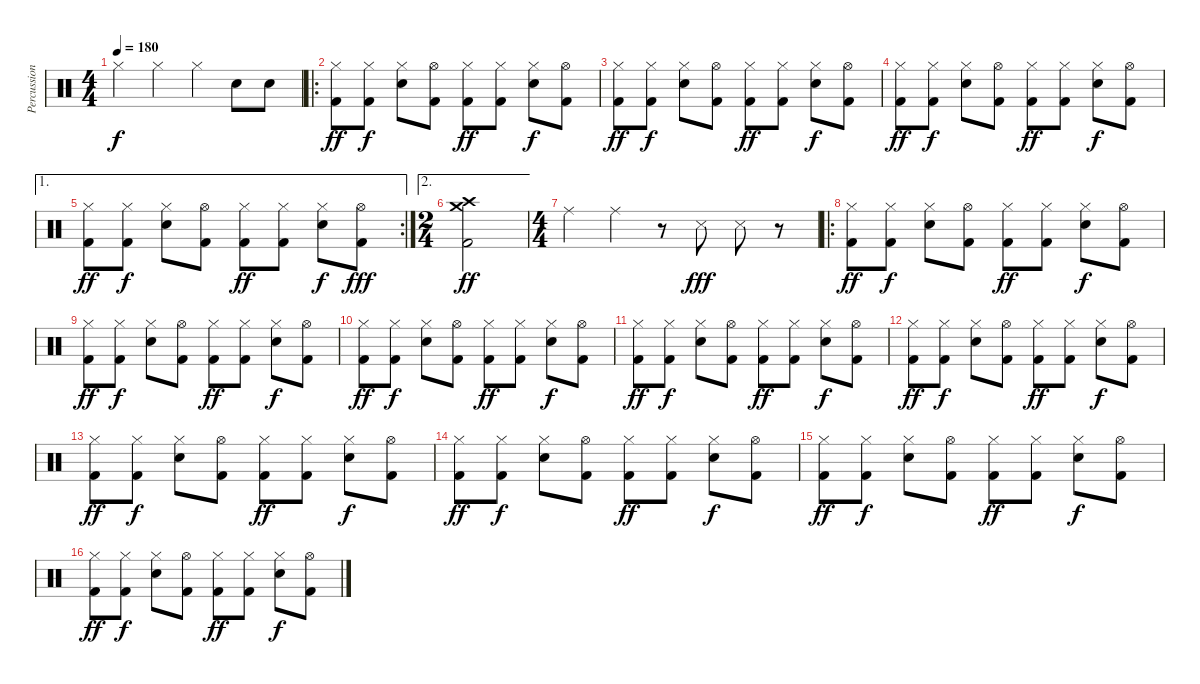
\track ("Percussions" "Percussion") {instrument percussion}
\staff {score}
\articulation defaults
\ts (4 4)
\tempo 180
\clef neutral
\ks c "Hi-Hat (closed)".4{dy f} "Hi-Hat (closed)".4 "Hi-Hat (closed)".4 "Electric Snare (hit)".8 "Electric Snare (hit)".8
|
\ro
("Hi-Hat (closed)" "Kick (hit) 2").8{dy ff} ("Hi-Hat (closed)" "Kick (hit) 2").8{dy f} ("Hi-Hat (closed)" "Snare (hit) 2").8 ("Hi-Hat (open)" "Kick (hit) 2").8 ("Hi-Hat (closed)" "Kick (hit) 2").8{dy ff} ("Hi-Hat (closed)" "Kick (hit) 2").8 ("Hi-Hat (closed)" "Snare (hit) 2").8{dy f} ("Hi-Hat (open)" "Kick (hit) 2").8 |
("Hi-Hat (closed)" "Kick (hit) 2").8{dy ff} ("Hi-Hat (closed)" "Kick (hit) 2").8{dy f} ("Hi-Hat (closed)" "Snare (hit) 2").8 ("Hi-Hat (open)" "Kick (hit) 2").8 ("Hi-Hat (closed)" "Kick (hit) 2").8{dy ff} ("Hi-Hat (closed)" "Kick (hit) 2").8 ("Hi-Hat (closed)" "Snare (hit) 2").8{dy f} ("Hi-Hat (open)" "Kick (hit) 2").8 |
("Hi-Hat (closed)" "Kick (hit) 2").8{dy ff} ("Hi-Hat (closed)" "Kick (hit) 2").8{dy f} ("Hi-Hat (closed)" "Snare (hit) 2").8 ("Hi-Hat (open)" "Kick (hit) 2").8 ("Hi-Hat (closed)" "Kick (hit) 2").8{dy ff} ("Hi-Hat (closed)" "Kick (hit) 2").8 ("Hi-Hat (closed)" "Snare (hit) 2").8{dy f} ("Hi-Hat (open)" "Kick (hit) 2").8 |
\ae 1
\rc 2
("Hi-Hat (closed)" "Kick (hit) 2").8{dy ff} ("Hi-Hat (closed)" "Kick (hit) 2").8{dy f} ("Hi-Hat (closed)" "Snare (hit) 2").8 ("Hi-Hat (open)" "Kick (hit) 2").8 ("Hi-Hat (closed)" "Kick (hit) 2").8{dy ff} ("Hi-Hat (closed)" "Kick (hit) 2").8 ("Hi-Hat (closed)" "Snare (hit) 2").8{dy f} ("Hi-Hat (open)" "Kick (hit) 2").8{dy fff} |
\ae 2
\ts (2 4)
("Crash medium (hit)" "Crash high (hit)" "Kick (hit) 2").2{dy ff} |
\ts (4 4)
"Ride (middle)".4 "Ride (middle)".4 r.8 "Snare (side stick) 3".8{dy fff} "Snare (side stick) 3".8 r.8 |
\ro
("Hi-Hat (closed)" "Kick (hit) 2").8{dy ff} ("Hi-Hat (closed)" "Kick (hit) 2").8{dy f} ("Hi-Hat (closed)" "Snare (hit) 2").8 ("Hi-Hat (open)" "Kick (hit) 2").8 ("Hi-Hat (closed)" "Kick (hit) 2").8{dy ff} ("Hi-Hat (closed)" "Kick (hit) 2").8 ("Hi-Hat (closed)" "Snare (hit) 2").8{dy f} ("Hi-Hat (open)" "Kick (hit) 2").8 |
("Hi-Hat (closed)" "Kick (hit) 2").8{dy ff} ("Hi-Hat (closed)" "Kick (hit) 2").8{dy f} ("Hi-Hat (closed)" "Snare (hit) 2").8 ("Hi-Hat (open)" "Kick (hit) 2").8 ("Hi-Hat (closed)" "Kick (hit) 2").8{dy ff} ("Hi-Hat (closed)" "Kick (hit) 2").8 ("Hi-Hat (closed)" "Snare (hit) 2").8{dy f} ("Hi-Hat (open)" "Kick (hit) 2").8 |
("Hi-Hat (closed)" "Kick (hit) 2").8{dy ff} ("Hi-Hat (closed)" "Kick (hit) 2").8{dy f} ("Hi-Hat (closed)" "Snare (hit) 2").8 ("Hi-Hat (open)" "Kick (hit) 2").8 ("Hi-Hat (closed)" "Kick (hit) 2").8{dy ff} ("Hi-Hat (closed)" "Kick (hit) 2").8 ("Hi-Hat (closed)" "Snare (hit) 2").8{dy f} ("Hi-Hat (open)" "Kick (hit) 2").8 |
("Hi-Hat (closed)" "Kick (hit) 2").8{dy ff} ("Hi-Hat (closed)" "Kick (hit) 2").8{dy f} ("Hi-Hat (closed)" "Snare (hit) 2").8 ("Hi-Hat (open)" "Kick (hit) 2").8 ("Hi-Hat (closed)" "Kick (hit) 2").8{dy ff} ("Hi-Hat (closed)" "Kick (hit) 2").8 ("Hi-Hat (closed)" "Snare (hit) 2").8{dy f} ("Hi-Hat (open)" "Kick (hit) 2").8 |
("Hi-Hat (closed)" "Kick (hit) 2").8{dy ff} ("Hi-Hat (closed)" "Kick (hit) 2").8{dy f} ("Hi-Hat (closed)" "Snare (hit) 2").8 ("Hi-Hat (open)" "Kick (hit) 2").8 ("Hi-Hat (closed)" "Kick (hit) 2").8{dy ff} ("Hi-Hat (closed)" "Kick (hit) 2").8 ("Hi-Hat (closed)" "Snare (hit) 2").8{dy f} ("Hi-Hat (open)" "Kick (hit) 2").8 |
("Hi-Hat (closed)" "Kick (hit) 2").8{dy ff} ("Hi-Hat (closed)" "Kick (hit) 2").8{dy f} ("Hi-Hat (closed)" "Snare (hit) 2").8 ("Hi-Hat (open)" "Kick (hit) 2").8 ("Hi-Hat (closed)" "Kick (hit) 2").8{dy ff} ("Hi-Hat (closed)" "Kick (hit) 2").8 ("Hi-Hat (closed)" "Snare (hit) 2").8{dy f} ("Hi-Hat (open)" "Kick (hit) 2").8 |
("Hi-Hat (closed)" "Kick (hit) 2").8{dy ff} ("Hi-Hat (closed)" "Kick (hit) 2").8{dy f} ("Hi-Hat (closed)" "Snare (hit) 2").8 ("Hi-Hat (open)" "Kick (hit) 2").8 ("Hi-Hat (closed)" "Kick (hit) 2").8{dy ff} ("Hi-Hat (closed)" "Kick (hit) 2").8 ("Hi-Hat (closed)" "Snare (hit) 2").8{dy f} ("Hi-Hat (open)" "Kick (hit) 2").8 |
("Hi-Hat (closed)" "Kick (hit) 2").8{dy ff} ("Hi-Hat (closed)" "Kick (hit) 2").8{dy f} ("Hi-Hat (closed)" "Snare (hit) 2").8 ("Hi-Hat (open)" "Kick (hit) 2").8 ("Hi-Hat (closed)" "Kick (hit) 2").8{dy ff} ("Hi-Hat (closed)" "Kick (hit) 2").8 ("Hi-Hat (closed)" "Snare (hit) 2").8{dy f} ("Hi-Hat (open)" "Kick (hit) 2").8 |
("Hi-Hat (closed)" "Kick (hit) 2").8{dy ff} ("Hi-Hat (closed)" "Kick (hit) 2").8{dy f} ("Hi-Hat (closed)" "Snare (hit) 2").8 ("Hi-Hat (open)" "Kick (hit) 2").8 ("Hi-Hat (closed)" "Kick (hit) 2").8{dy ff} ("Hi-Hat (closed)" "Kick (hit) 2").8 ("Hi-Hat (closed)" "Snare (hit) 2").8{dy f} ("Hi-Hat (open)" "Kick (hit) 2").8
